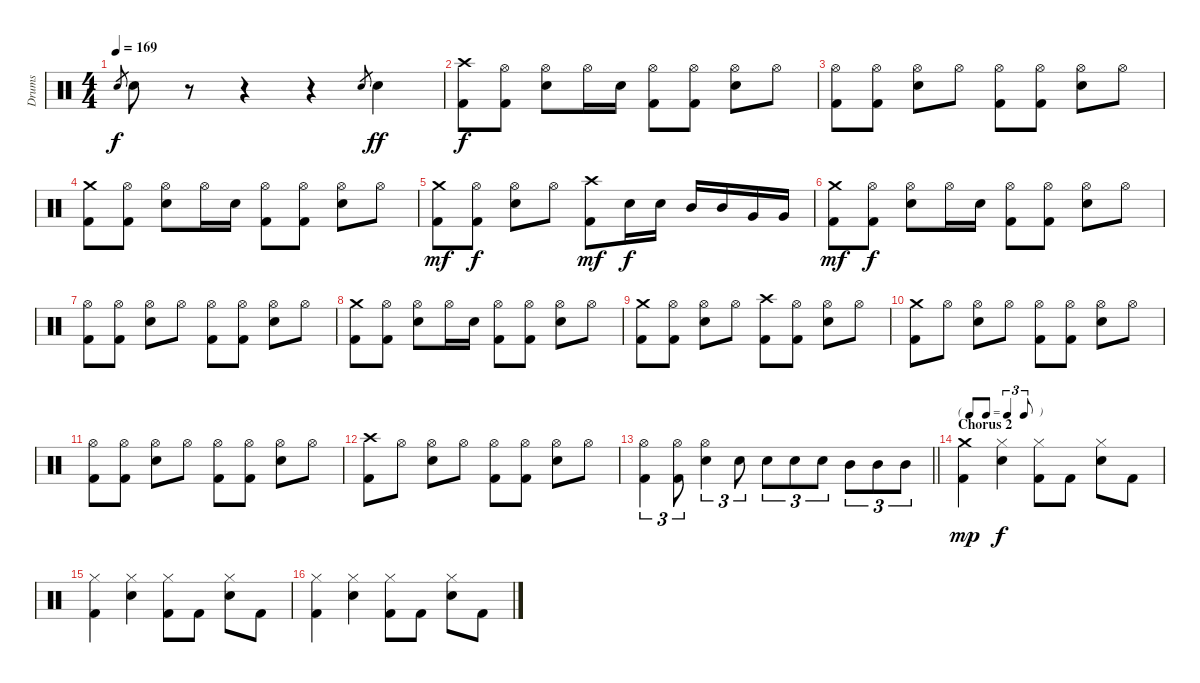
\track ("Drums" "Drums") {instrument percussion}
\staff {score}
\articulation defaults
\ts (4 4)
\tempo 169
\clef neutral
\ks c "Snare (hit) 2".8{gr dy f} "Snare (hit) 2".8
r.8 r.4 r.4 "Snare (hit) 2".8{gr} "Snare (hit) 2".4{dy ff} |
("Crash high (hit)" "Kick (hit) 2").8{dy f} ("Hi-Hat (open)" "Kick (hit) 2").8 ("Hi-Hat (open)" "Snare (hit) 2").8 "Hi-Hat (open)".16 "Snare (hit) 2".16 ("Hi-Hat (open)" "Kick (hit) 2").8 ("Hi-Hat (open)" "Kick (hit) 2").8 ("Hi-Hat (open)" "Snare (hit) 2").8 "Hi-Hat (open)".8 |
("Hi-Hat (open)" "Kick (hit) 2").8 ("Hi-Hat (open)" "Kick (hit) 2").8 ("Hi-Hat (open)" "Snare (hit) 2").8 "Hi-Hat (open)".8 ("Hi-Hat (open)" "Kick (hit) 2").8 ("Hi-Hat (open)" "Kick (hit) 2").8 ("Hi-Hat (open)" "Snare (hit) 2").8 "Hi-Hat (open)".8 |
("Crash medium (hit)" "Kick (hit) 2").8 ("Hi-Hat (open)" "Kick (hit) 2").8 ("Hi-Hat (open)" "Snare (hit) 2").8 "Hi-Hat (open)".16 "Snare (hit) 2".16 ("Hi-Hat (open)" "Kick (hit) 2").8 ("Hi-Hat (open)" "Kick (hit) 2").8 ("Hi-Hat (open)" "Snare (hit) 2").8 "Hi-Hat (open)".8 |
("Crash medium (hit)" "Kick (hit) 2").8{dy mf} ("Hi-Hat (open)" "Kick (hit) 2").8{dy f} ("Hi-Hat (open)" "Snare (hit) 2").8 "Hi-Hat (open)".8 ("Crash high (hit)" "Kick (hit) 2").8{dy mf} "Snare (hit) 2".16{dy f} "Snare (hit) 2".16 "Mid Tom (hit)".16 "Mid Tom (hit)".16 "Very Low Tom (hit)".16 "Very Low Tom (hit)".16 |
("Crash medium (hit)" "Kick (hit) 2").8{dy mf} ("Hi-Hat (open)" "Kick (hit) 2").8{dy f} ("Hi-Hat (open)" "Snare (hit) 2").8 "Hi-Hat (open)".16 "Snare (hit) 2".16 ("Hi-Hat (open)" "Kick (hit) 2").8 ("Hi-Hat (open)" "Kick (hit) 2").8 ("Hi-Hat (open)" "Snare (hit) 2").8 "Hi-Hat (open)".8 |
("Hi-Hat (open)" "Kick (hit) 2").8 ("Hi-Hat (open)" "Kick (hit) 2").8 ("Hi-Hat (open)" "Snare (hit) 2").8 "Hi-Hat (open)".8 ("Hi-Hat (open)" "Kick (hit) 2").8 ("Hi-Hat (open)" "Kick (hit) 2").8 ("Hi-Hat (open)" "Snare (hit) 2").8 "Hi-Hat (open)".8 |
("Crash medium (hit)" "Kick (hit) 2").8 ("Hi-Hat (open)" "Kick (hit) 2").8 ("Hi-Hat (open)" "Snare (hit) 2").8 "Hi-Hat (open)".16 "Snare (hit) 2".16 ("Hi-Hat (open)" "Kick (hit) 2").8 ("Hi-Hat (open)" "Kick (hit) 2").8 ("Hi-Hat (open)" "Snare (hit) 2").8 "Hi-Hat (open)".8 |
("Crash medium (hit)" "Kick (hit) 2").8 ("Hi-Hat (open)" "Kick (hit) 2").8 ("Hi-Hat (open)" "Snare (hit) 2").8 "Hi-Hat (open)".8 ("Crash high (hit)" "Kick (hit) 2").8 ("Hi-Hat (open)" "Kick (hit) 2").8 ("Hi-Hat (open)" "Snare (hit) 2").8 "Hi-Hat (open)".8 |
("Crash medium (hit)" "Kick (hit) 2").8 "Hi-Hat (open)".8 ("Hi-Hat (open)" "Snare (hit) 2").8 "Hi-Hat (open)".8 ("Hi-Hat (open)" "Kick (hit) 2").8 ("Hi-Hat (open)" "Kick (hit) 2").8 ("Hi-Hat (open)" "Snare (hit) 2").8 "Hi-Hat (open)".8 |
("Hi-Hat (open)" "Kick (hit) 2").8 ("Hi-Hat (open)" "Kick (hit) 2").8 ("Hi-Hat (open)" "Snare (hit) 2").8 "Hi-Hat (open)".8 ("Hi-Hat (open)" "Kick (hit) 2").8 ("Hi-Hat (open)" "Kick (hit) 2").8 ("Hi-Hat (open)" "Snare (hit) 2").8 "Hi-Hat (open)".8 |
("Crash high (hit)" "Kick (hit) 2").8 "Hi-Hat (open)".8 ("Hi-Hat (open)" "Snare (hit) 2").8 "Hi-Hat (open)".8 ("Hi-Hat (open)" "Kick (hit) 2").8 ("Hi-Hat (open)" "Kick (hit) 2").8 ("Hi-Hat (open)" "Snare (hit) 2").8 "Hi-Hat (open)".8 |
\barLineRight lightlight
("Hi-Hat (open)" "Kick (hit) 2").4{tu (3 2)} ("Hi-Hat (open)" "Kick (hit) 2").8{tu (3 2)} ("Hi-Hat (open)" "Snare (hit) 2").4{tu (3 2)} "Snare (hit) 2".8{tu (3 2)} "Snare (hit) 2".8{tu (3 2)} "Snare (hit) 2".8{tu (3 2)} "Snare (hit) 2".8{tu (3 2)} "Mid Tom (hit)".8{tu (3 2)} "Mid Tom (hit)".8{tu (3 2)} "Mid Tom (hit)".8{tu (3 2)} |
\tf triplet8th
\section ("" "Chorus 2")
("Crash medium (hit)" "Kick (hit) 2").4{dy mp} ("Hi-Hat (closed)" "Snare (hit) 2").4{dy f} ("Hi-Hat (closed)" "Kick (hit) 2").8 "Kick (hit) 2".8 ("Hi-Hat (closed)" "Snare (hit) 2").8 "Kick (hit) 2".8 |
("Hi-Hat (closed)" "Kick (hit) 2").4 ("Hi-Hat (closed)" "Snare (hit) 2").4 ("Hi-Hat (closed)" "Kick (hit) 2").8 "Kick (hit) 2".8 ("Hi-Hat (closed)" "Snare (hit) 2").8 "Kick (hit) 2".8 |
("Hi-Hat (closed)" "Kick (hit) 2").4 ("Hi-Hat (closed)" "Snare (hit) 2").4 ("Hi-Hat (closed)" "Kick (hit) 2").8 "Kick (hit) 2".8 ("Hi-Hat (closed)" "Snare (hit) 2").8 "Kick (hit) 2".8
